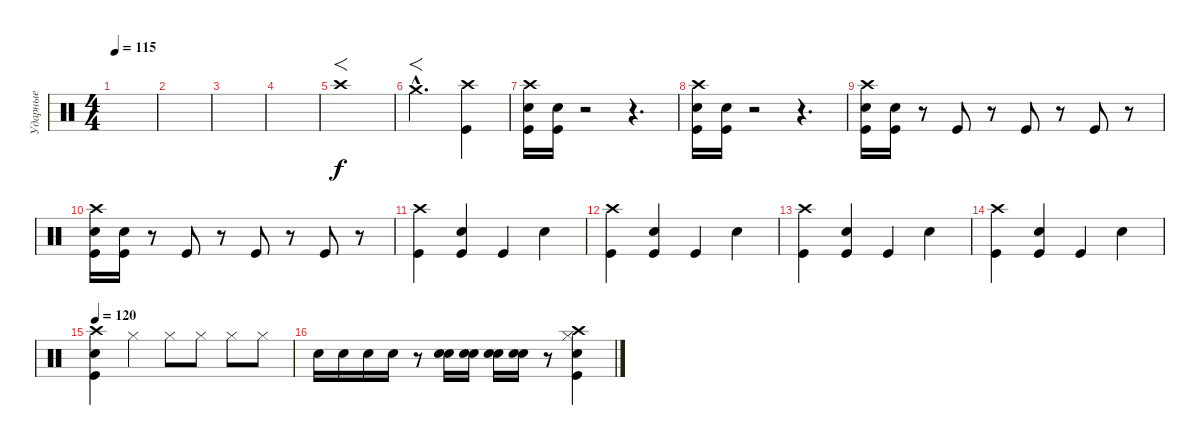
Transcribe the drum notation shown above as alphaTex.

\track ("Ударные" "Ударные") {instrument percussion}
\staff {score}
\articulation defaults
\ts (4 4)
\tempo 115
\tempo 80
\tempo 115
\clef neutral
\ks c
|
|
|
|
"Crash high (hit)".1{f} |
"Crash medium (hit)"{hac}.2{f d} ("Crash high (hit)" "Kick (hit)").4 |
("Crash high (hit)" "Electric Snare (hit)" "Kick (hit)").16 ("Electric Snare (hit)" "Kick (hit)").16 r.2 r.4{d} |
("Crash high (hit)" "Electric Snare (hit)" "Kick (hit)").16 ("Electric Snare (hit)" "Kick (hit)").16 r.2 r.4{d} |
("Crash high (hit)" "Electric Snare (hit)" "Kick (hit)").16 ("Electric Snare (hit)" "Kick (hit)").16 r.8 "Kick (hit)".8 r.8 "Kick (hit)".8 r.8 "Kick (hit)".8 r.8 |
("Crash high (hit)" "Electric Snare (hit)" "Kick (hit)").16 ("Electric Snare (hit)" "Kick (hit)").16 r.8 "Kick (hit)".8 r.8 "Kick (hit)".8 r.8 "Kick (hit)".8 r.8 |
("Crash high (hit)" "Kick (hit)").4 ("Electric Snare (hit)" "Kick (hit)").4 "Kick (hit)".4 "Electric Snare (hit)".4 |
("Crash high (hit)" "Kick (hit)").4 ("Electric Snare (hit)" "Kick (hit)").4 "Kick (hit)".4 "Electric Snare (hit)".4 |
("Crash high (hit)" "Kick (hit)").4 ("Electric Snare (hit)" "Kick (hit)").4 "Kick (hit)".4 "Electric Snare (hit)".4 |
("Crash high (hit)" "Kick (hit)").4 ("Electric Snare (hit)" "Kick (hit)").4 "Kick (hit)".4 "Electric Snare (hit)".4 |
\tempo 120
("Crash high (hit)" "Electric Snare (hit)" "Kick (hit)").4 "Hi-Hat (closed)".4 "Hi-Hat (closed)".8 "Hi-Hat (closed)".8 "Hi-Hat (closed)".8 "Hi-Hat (closed)".8 |
"Electric Snare (hit)".16 "Electric Snare (hit)".16 "Electric Snare (hit)".16 "Electric Snare (hit)".16 r.8 ("Electric Snare (hit)" "Electric Snare (hit)").16 ("Electric Snare (hit)" "Electric Snare (hit)").16 ("Electric Snare (hit)" "Electric Snare (hit)").16 ("Electric Snare (hit)" "Electric Snare (hit)").16 r.8 ("Crash high (hit)" "Hi-Hat (closed)" "Electric Snare (hit)" "Kick (hit)").4
